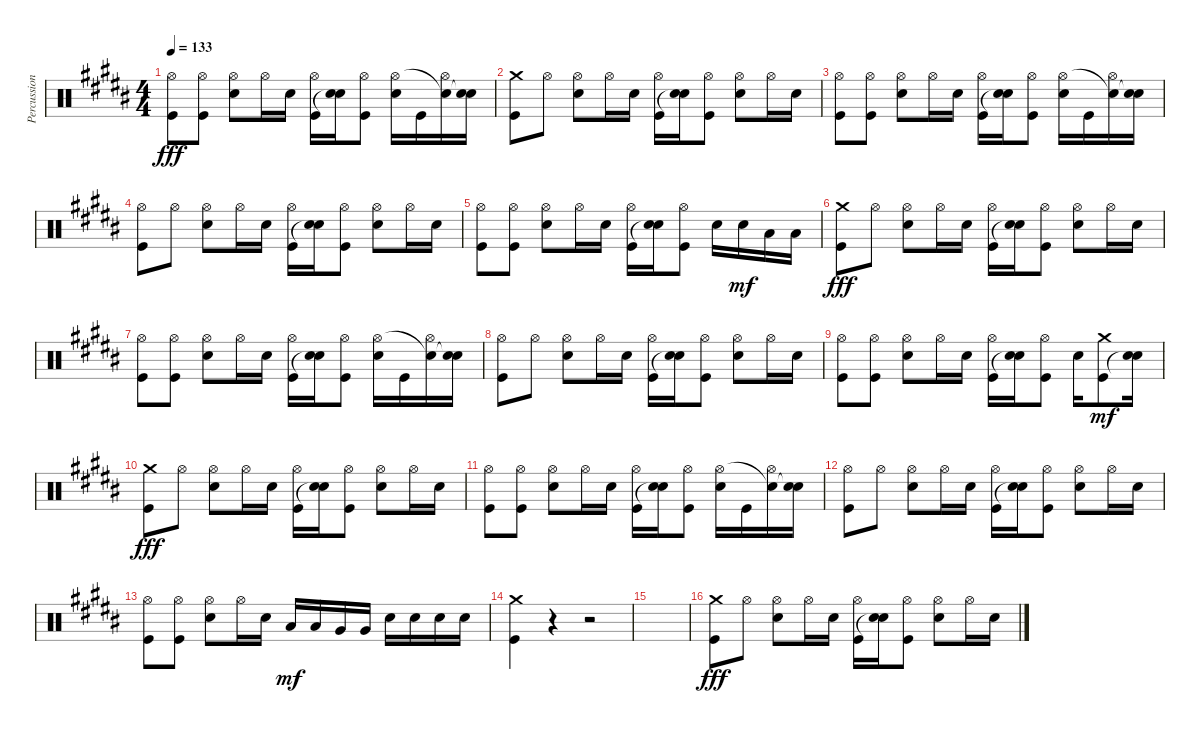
\track ("Percussion" "Percussion") {instrument percussion}
\staff {score}
\articulation defaults
\ts (4 4)
\tempo 133
\clef neutral
\ks b
("Kick (hit)" "Hi-Hat (open)").8{dy fff} ("Kick (hit)" "Hi-Hat (open)").8 ("Electric Snare (hit)" "Hi-Hat (open)").8 "Hi-Hat (open)".16 "Electric Snare (hit)".16 ("Kick (hit)" "Hi-Hat (open)").16 ("Snare (hit)"{t} "Electric Snare (hit)").16 ("Kick (hit)" "Hi-Hat (open)").8 ("Electric Snare (hit)" "Hi-Hat (open)").16 "Kick (hit)".16 ("Hi-Hat (open)" "Snare (hit)"{t}).16 ("Electric Snare (hit)" "Snare (hit)"{t}).16 |
("Crash medium (hit)" "Kick (hit)").8 "Hi-Hat (open)".8 ("Hi-Hat (open)" "Electric Snare (hit)").8 "Hi-Hat (open)".16 "Electric Snare (hit)".16 ("Hi-Hat (open)" "Kick (hit)").16 ("Electric Snare (hit)" "Snare (hit)"{t}).16 ("Hi-Hat (open)" "Kick (hit)").8 ("Hi-Hat (open)" "Electric Snare (hit)").8 "Hi-Hat (open)".16 "Electric Snare (hit)".16 |
("Kick (hit)" "Hi-Hat (open)").8 ("Kick (hit)" "Hi-Hat (open)").8 ("Electric Snare (hit)" "Hi-Hat (open)").8 "Hi-Hat (open)".16 "Electric Snare (hit)".16 ("Kick (hit)" "Hi-Hat (open)").16 ("Snare (hit)"{t} "Electric Snare (hit)").16 ("Kick (hit)" "Hi-Hat (open)").8 ("Electric Snare (hit)" "Hi-Hat (open)").16 "Kick (hit)".16 ("Hi-Hat (open)" "Snare (hit)"{t}).16 ("Electric Snare (hit)" "Snare (hit)"{t}).16 |
("Hi-Hat (open)" "Kick (hit)").8 "Hi-Hat (open)".8 ("Hi-Hat (open)" "Electric Snare (hit)").8 "Hi-Hat (open)".16 "Electric Snare (hit)".16 ("Hi-Hat (open)" "Kick (hit)").16 ("Electric Snare (hit)" "Snare (hit)"{t}).16 ("Hi-Hat (open)" "Kick (hit)").8 ("Hi-Hat (open)" "Electric Snare (hit)").8 "Hi-Hat (open)".16 "Electric Snare (hit)".16 |
("Kick (hit)" "Hi-Hat (open)").8 ("Kick (hit)" "Hi-Hat (open)").8 ("Electric Snare (hit)" "Hi-Hat (open)").8 "Hi-Hat (open)".16 "Electric Snare (hit)".16 ("Kick (hit)" "Hi-Hat (open)").16 ("Snare (hit)"{t} "Electric Snare (hit)").16 ("Kick (hit)" "Hi-Hat (open)").8 "Electric Snare (hit)".16 "Electric Snare (hit)".16{dy mf} "Low Tom (hit)".16 "Low Tom (hit)".16 |
("Crash medium (hit)" "Kick (hit)").8{dy fff} "Hi-Hat (open)".8 ("Hi-Hat (open)" "Electric Snare (hit)").8 "Hi-Hat (open)".16 "Electric Snare (hit)".16 ("Hi-Hat (open)" "Kick (hit)").16 ("Electric Snare (hit)" "Snare (hit)"{t}).16 ("Hi-Hat (open)" "Kick (hit)").8 ("Hi-Hat (open)" "Electric Snare (hit)").8 "Hi-Hat (open)".16 "Electric Snare (hit)".16 |
("Kick (hit)" "Hi-Hat (open)").8 ("Kick (hit)" "Hi-Hat (open)").8 ("Electric Snare (hit)" "Hi-Hat (open)").8 "Hi-Hat (open)".16 "Electric Snare (hit)".16 ("Kick (hit)" "Hi-Hat (open)").16 ("Snare (hit)"{t} "Electric Snare (hit)").16 ("Kick (hit)" "Hi-Hat (open)").8 ("Electric Snare (hit)" "Hi-Hat (open)").16 "Kick (hit)".16 ("Hi-Hat (open)" "Snare (hit)"{t}).16 ("Electric Snare (hit)" "Snare (hit)"{t}).16 |
("Hi-Hat (open)" "Kick (hit)").8 "Hi-Hat (open)".8 ("Hi-Hat (open)" "Electric Snare (hit)").8 "Hi-Hat (open)".16 "Electric Snare (hit)".16 ("Hi-Hat (open)" "Kick (hit)").16 ("Electric Snare (hit)" "Snare (hit)"{t}).16 ("Hi-Hat (open)" "Kick (hit)").8 ("Hi-Hat (open)" "Electric Snare (hit)").8 "Hi-Hat (open)".16 "Electric Snare (hit)".16 |
("Kick (hit)" "Hi-Hat (open)").8 ("Kick (hit)" "Hi-Hat (open)").8 ("Electric Snare (hit)" "Hi-Hat (open)").8 "Hi-Hat (open)".16 "Electric Snare (hit)".16 ("Kick (hit)" "Hi-Hat (open)").16 ("Snare (hit)"{t} "Electric Snare (hit)").16 ("Kick (hit)" "Hi-Hat (open)").8 "Electric Snare (hit)".16 ("Crash medium (hit)" "Kick (hit)").8{dy mf} ("Electric Snare (hit)" "Snare (hit)"{t}).16 |
("Crash medium (hit)" "Kick (hit)").8{dy fff} "Hi-Hat (open)".8 ("Hi-Hat (open)" "Electric Snare (hit)").8 "Hi-Hat (open)".16 "Electric Snare (hit)".16 ("Hi-Hat (open)" "Kick (hit)").16 ("Electric Snare (hit)" "Snare (hit)"{t}).16 ("Hi-Hat (open)" "Kick (hit)").8 ("Hi-Hat (open)" "Electric Snare (hit)").8 "Hi-Hat (open)".16 "Electric Snare (hit)".16 |
("Kick (hit)" "Hi-Hat (open)").8 ("Kick (hit)" "Hi-Hat (open)").8 ("Electric Snare (hit)" "Hi-Hat (open)").8 "Hi-Hat (open)".16 "Electric Snare (hit)".16 ("Kick (hit)" "Hi-Hat (open)").16 ("Snare (hit)"{t} "Electric Snare (hit)").16 ("Kick (hit)" "Hi-Hat (open)").8 ("Electric Snare (hit)" "Hi-Hat (open)").16 "Kick (hit)".16 ("Hi-Hat (open)" "Snare (hit)"{t}).16 ("Electric Snare (hit)" "Snare (hit)"{t}).16 |
("Hi-Hat (open)" "Kick (hit)").8 "Hi-Hat (open)".8 ("Hi-Hat (open)" "Electric Snare (hit)").8 "Hi-Hat (open)".16 "Electric Snare (hit)".16 ("Hi-Hat (open)" "Kick (hit)").16 ("Electric Snare (hit)" "Snare (hit)"{t}).16 ("Hi-Hat (open)" "Kick (hit)").8 ("Hi-Hat (open)" "Electric Snare (hit)").8 "Hi-Hat (open)".16 "Electric Snare (hit)".16 |
("Kick (hit)" "Hi-Hat (open)").8 ("Kick (hit)" "Hi-Hat (open)").8 ("Electric Snare (hit)" "Hi-Hat (open)").8 "Hi-Hat (open)".16 "Electric Snare (hit)".16 "Low Tom (hit)".16{dy mf} "Low Tom (hit)".16 "Very Low Tom (hit)".16 "Very Low Tom (hit)".16 "Electric Snare (hit)".16 "Electric Snare (hit)".16 "Electric Snare (hit)".16 "Electric Snare (hit)".16 |
("Crash medium (hit)" "Kick (hit)").4 r.4 r.2 |
|
("Crash medium (hit)" "Kick (hit)").8{dy fff} "Hi-Hat (open)".8 ("Hi-Hat (open)" "Electric Snare (hit)").8 "Hi-Hat (open)".16 "Electric Snare (hit)".16 ("Hi-Hat (open)" "Kick (hit)").16 ("Electric Snare (hit)" "Snare (hit)"{t}).16 ("Hi-Hat (open)" "Kick (hit)").8 ("Hi-Hat (open)" "Electric Snare (hit)").8 "Hi-Hat (open)".16 "Electric Snare (hit)".16
